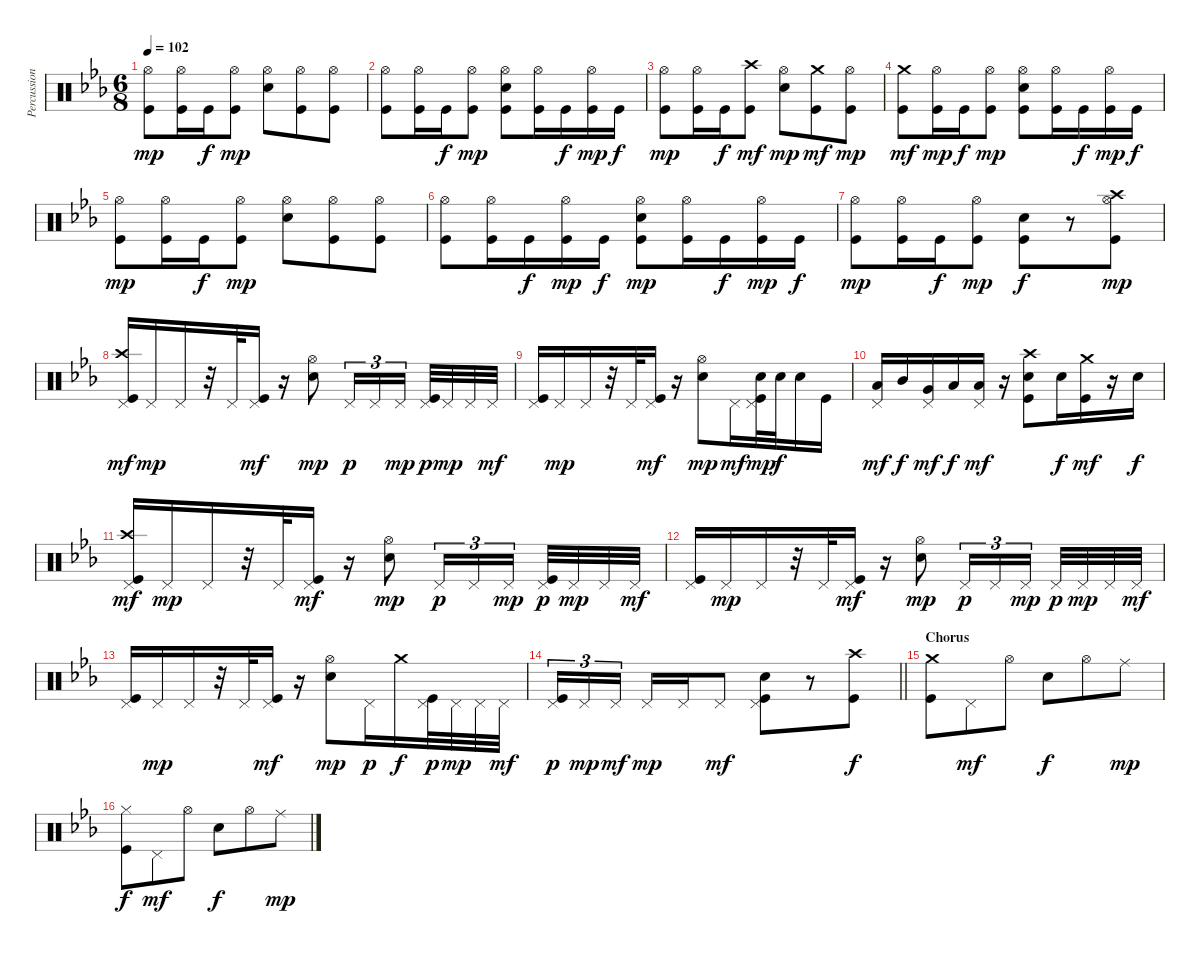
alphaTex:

\track ("Percussion" "Percussion") {instrument percussion}
\staff {score}
\articulation defaults
\ts (6 8)
\tempo 102
\clef neutral
\ks cminor
("Hi-Hat (open)" "Kick (hit)").8{dy mp} ("Hi-Hat (open)" "Kick (hit)").16 "Kick (hit)".16{dy f} ("Hi-Hat (open)" "Kick (hit)").8{dy mp} ("Hi-Hat (open)" "Snare (hit) 2").8 ("Hi-Hat (open)" "Kick (hit)").8 ("Hi-Hat (open)" "Kick (hit)").8 |
("Hi-Hat (open)" "Kick (hit)").8 ("Hi-Hat (open)" "Kick (hit)").16 "Kick (hit)".16{dy f} ("Hi-Hat (open)" "Kick (hit)").8{dy mp} ("Hi-Hat (open)" "Snare (hit) 2" "Kick (hit)").8 ("Hi-Hat (open)" "Kick (hit)").16 "Kick (hit)".16{dy f} ("Hi-Hat (open)" "Kick (hit)").16{dy mp} "Kick (hit)".16{dy f} |
("Hi-Hat (open)" "Kick (hit)").8{dy mp} ("Hi-Hat (open)" "Kick (hit)").16 "Kick (hit)".16{dy f} ("Crash high (hit)" "Kick (hit)").8{dy mf} ("Hi-Hat (open)" "Snare (hit) 2").8{dy mp} ("Crash medium (hit)" "Kick (hit)").8{dy mf} ("Hi-Hat (open)" "Kick (hit)").8{dy mp} |
("Crash medium (hit)" "Kick (hit)").8{dy mf} ("Hi-Hat (open)" "Kick (hit)").16{dy mp} "Kick (hit)".16{dy f} ("Hi-Hat (open)" "Kick (hit)").8{dy mp} ("Hi-Hat (open)" "Snare (hit) 2" "Kick (hit)").8 ("Hi-Hat (open)" "Kick (hit)").16 "Kick (hit)".16{dy f} ("Hi-Hat (open)" "Kick (hit)").16{dy mp} "Kick (hit)".16{dy f} |
("Hi-Hat (open)" "Kick (hit)").8{dy mp} ("Hi-Hat (open)" "Kick (hit)").16 "Kick (hit)".16{dy f} ("Hi-Hat (open)" "Kick (hit)").8{dy mp} ("Hi-Hat (open)" "Snare (hit) 2").8 ("Hi-Hat (open)" "Kick (hit)").8 ("Hi-Hat (open)" "Kick (hit)").8 |
("Hi-Hat (open)" "Kick (hit)").8 ("Hi-Hat (open)" "Kick (hit)").16 "Kick (hit)".16{dy f} ("Hi-Hat (open)" "Kick (hit)").16{dy mp} "Kick (hit)".16{dy f} ("Hi-Hat (open)" "Snare (hit) 2" "Kick (hit)").8{dy mp} ("Hi-Hat (open)" "Kick (hit)").16 "Kick (hit)".16{dy f} ("Hi-Hat (open)" "Kick (hit)").16{dy mp} "Kick (hit)".16{dy f} |
("Hi-Hat (open)" "Kick (hit)").8{dy mp} ("Hi-Hat (open)" "Kick (hit)").16 "Kick (hit)".16{dy f} ("Hi-Hat (open)" "Kick (hit)").8{dy mp} ("Snare (hit) 2" "Kick (hit)").8{dy f} r.8 ("Crash high (hit)" "Hi-Hat (open)" "Kick (hit)").8{dy mp} |
("Crash high (hit)" "Pedal Hi-Hat (hit)" "Kick (hit)").16{dy mf} "Pedal Hi-Hat (hit)".16{dy mp} "Pedal Hi-Hat (hit)".16 r.32 "Pedal Hi-Hat (hit)".32 ("Pedal Hi-Hat (hit)" "Kick (hit)").16{dy mf} r.16 ("Hi-Hat (open)" "Snare (hit) 2").8{dy mp} "Pedal Hi-Hat (hit)".16{tu (3 2) dy p} "Pedal Hi-Hat (hit)".16{tu (3 2)} "Pedal Hi-Hat (hit)".16{tu (3 2) dy mp beam splitsecondary} ("Pedal Hi-Hat (hit)" "Kick (hit)").32{dy p} "Pedal Hi-Hat (hit)".32{dy mp} "Pedal Hi-Hat (hit)".32 "Pedal Hi-Hat (hit)".32{dy mf} |
("Pedal Hi-Hat (hit)" "Kick (hit)").16 "Pedal Hi-Hat (hit)".16{dy mp} "Pedal Hi-Hat (hit)".16 r.32 "Pedal Hi-Hat (hit)".32 ("Pedal Hi-Hat (hit)" "Kick (hit)").16{dy mf} r.16 ("Hi-Hat (open)" "Snare (hit) 2").8{dy mp} "Pedal Hi-Hat (hit)".16{dy mf} ("Pedal Hi-Hat (hit)" "Snare (hit) 2" "Kick (hit)").32{dy mp} "Snare (hit) 2".32{dy f} "Snare (hit) 2".16 "Kick (hit)".16 |
("Pedal Hi-Hat (hit)" "Low Tom (hit)").16{dy mf} "Mid Tom (hit)".16{dy f} ("Pedal Hi-Hat (hit)" "Very Low Tom (hit)").16{dy mf} "Low Tom (hit)".16{dy f} ("Pedal Hi-Hat (hit)" "Low Floor Tom (hit)").16{dy mf} r.16 ("Crash high (hit)" "Snare (hit) 2" "Kick (hit)").8 "Snare (hit) 2".16{dy f} ("Crash medium (hit)" "Kick (hit)").16{dy mf} r.16 "Snare (hit) 2".16{dy f} |
("Crash high (hit)" "Pedal Hi-Hat (hit)" "Kick (hit)").16{dy mf} "Pedal Hi-Hat (hit)".16{dy mp} "Pedal Hi-Hat (hit)".16 r.32 "Pedal Hi-Hat (hit)".32 ("Pedal Hi-Hat (hit)" "Kick (hit)").16{dy mf} r.16 ("Hi-Hat (open)" "Snare (hit) 2").8{dy mp} "Pedal Hi-Hat (hit)".16{tu (3 2) dy p} "Pedal Hi-Hat (hit)".16{tu (3 2)} "Pedal Hi-Hat (hit)".16{tu (3 2) dy mp beam splitsecondary} ("Pedal Hi-Hat (hit)" "Kick (hit)").32{dy p} "Pedal Hi-Hat (hit)".32{dy mp} "Pedal Hi-Hat (hit)".32 "Pedal Hi-Hat (hit)".32{dy mf} |
("Pedal Hi-Hat (hit)" "Kick (hit)").16 "Pedal Hi-Hat (hit)".16{dy mp} "Pedal Hi-Hat (hit)".16 r.32 "Pedal Hi-Hat (hit)".32 ("Pedal Hi-Hat (hit)" "Kick (hit)").16{dy mf} r.16 ("Hi-Hat (open)" "Snare (hit) 2").8{dy mp} "Pedal Hi-Hat (hit)".16{tu (3 2) dy p} "Pedal Hi-Hat (hit)".16{tu (3 2)} "Pedal Hi-Hat (hit)".16{tu (3 2) dy mp beam splitsecondary} "Pedal Hi-Hat (hit)".32{dy p} "Pedal Hi-Hat (hit)".32{dy mp} "Pedal Hi-Hat (hit)".32 "Pedal Hi-Hat (hit)".32{dy mf} |
("Pedal Hi-Hat (hit)" "Kick (hit)").16 "Pedal Hi-Hat (hit)".16{dy mp} "Pedal Hi-Hat (hit)".16 r.32 "Pedal Hi-Hat (hit)".32 ("Pedal Hi-Hat (hit)" "Kick (hit)").16{dy mf} r.16 ("Hi-Hat (open)" "Snare (hit) 2").8{dy mp} "Pedal Hi-Hat (hit)".16{dy p} "Crash medium (hit)".16{dy f} ("Pedal Hi-Hat (hit)" "Kick (hit)").32{dy p} "Pedal Hi-Hat (hit)".32{dy mp} "Pedal Hi-Hat (hit)".32 "Pedal Hi-Hat (hit)".32{dy mf} |
\barLineRight lightlight
("Pedal Hi-Hat (hit)" "Kick (hit)").16{tu (3 2) dy p} "Pedal Hi-Hat (hit)".16{tu (3 2) dy mp} "Pedal Hi-Hat (hit)".16{tu (3 2) dy mf beam splitsecondary} "Pedal Hi-Hat (hit)".16{dy mp} "Pedal Hi-Hat (hit)".16 "Pedal Hi-Hat (hit)".8{dy mf} ("Pedal Hi-Hat (hit)" "Snare (hit) 2" "Kick (hit)").8 r.8 ("Crash high (hit)" "Kick (hit)").8{dy f} |
\section ("" "Chorus")
("Crash medium (hit)" "Kick (hit)").8 "Pedal Hi-Hat (hit)".8{dy mf} "Hi-Hat (open)".8 "Snare (hit) 2".8{dy f} "Hi-Hat (open)".8 "Ride (middle)".8{dy mp} |
("Hi-Hat (closed)" "Kick (hit)").8{dy f} "Pedal Hi-Hat (hit)".8{dy mf} "Hi-Hat (open)".8 "Snare (hit) 2".8{dy f} "Hi-Hat (open)".8 "Ride (middle)".8{dy mp}
